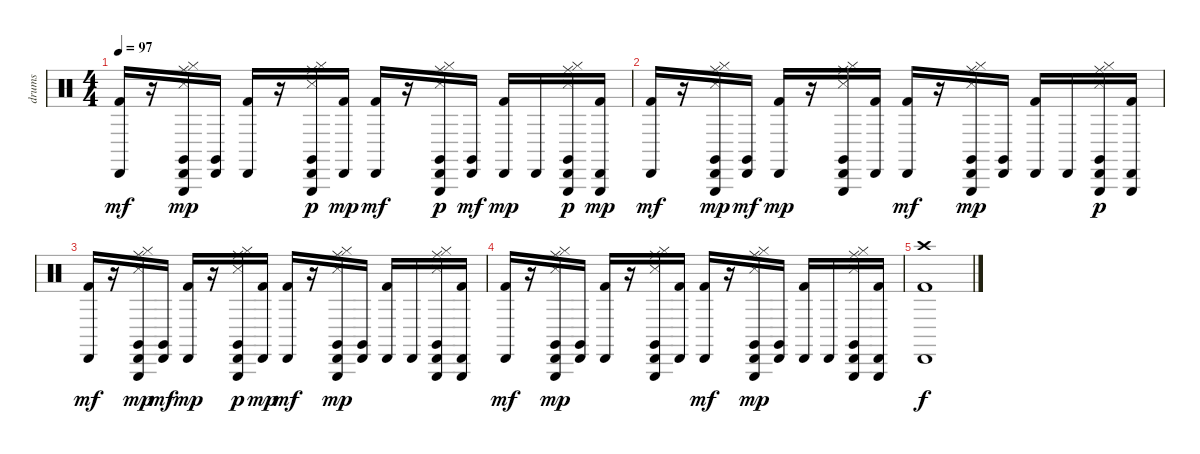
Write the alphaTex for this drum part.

\track ("drums" "drums") {instrument percussion}
\staff {score}
\articulation defaults
\ts (4 4)
\tempo 97
\clef neutral
\ks c
("Kick (hit) 2" "Cabasa (hit)").16{dy mf} r.16 ("Snare (side stick) 3" "Hi-Hat (closed)" "Cabasa (hit)" "Claves (hit)" "Ride (middle)" "Triangle (hit)").16{dy mp} ("Cabasa (hit)" "Claves (hit)").16 ("Kick (hit) 2" "Cabasa (hit)").16 r.16 ("Snare (side stick) 3" "Hi-Hat (closed)" "Cabasa (hit)" "Claves (hit)" "Ride (middle)" "Triangle (hit)").16{dy p} ("Kick (hit) 2" "Cabasa (hit)").16{dy mp} ("Kick (hit) 2" "Cabasa (hit)").16{dy mf} r.16 ("Snare (side stick) 3" "Hi-Hat (closed)" "Cabasa (hit)" "Claves (hit)" "Ride (middle)" "Triangle (hit)").16{dy p} ("Cabasa (hit)" "Claves (hit)").16{dy mf} ("Kick (hit) 2" "Cabasa (hit)").16{dy mp} "Cabasa (hit)".16 ("Snare (side stick) 3" "Hi-Hat (closed)" "Cabasa (hit)" "Claves (hit)" "Ride (middle)" "Triangle (hit)").16{dy p} ("Kick (hit) 2" "Cabasa (hit)" "Triangle (hit)").16{dy mp} |
("Kick (hit) 2" "Cabasa (hit)").16{dy mf} r.16 ("Snare (side stick) 3" "Hi-Hat (closed)" "Cabasa (hit)" "Claves (hit)" "Ride (middle)" "Triangle (hit)").16{dy mp} ("Cabasa (hit)" "Claves (hit)").16{dy mf} ("Kick (hit) 2" "Cabasa (hit)").16{dy mp} r.16 ("Snare (side stick) 3" "Hi-Hat (closed)" "Cabasa (hit)" "Claves (hit)" "Ride (middle)" "Triangle (hit)").16 ("Kick (hit) 2" "Cabasa (hit)").16 ("Kick (hit) 2" "Cabasa (hit)").16{dy mf} r.16 ("Snare (side stick) 3" "Hi-Hat (closed)" "Cabasa (hit)" "Claves (hit)" "Ride (middle)" "Triangle (hit)").16{dy mp} ("Cabasa (hit)" "Claves (hit)").16 ("Kick (hit) 2" "Cabasa (hit)").16 "Cabasa (hit)".16 ("Snare (side stick) 3" "Hi-Hat (closed)" "Cabasa (hit)" "Claves (hit)" "Ride (middle)" "Triangle (hit)").16{dy p} ("Kick (hit) 2" "Cabasa (hit)" "Triangle (hit)").16 |
("Kick (hit) 2" "Cabasa (hit)").16{dy mf} r.16 ("Snare (side stick) 3" "Hi-Hat (closed)" "Cabasa (hit)" "Claves (hit)" "Ride (middle)" "Triangle (hit)").16{dy mp} ("Cabasa (hit)" "Claves (hit)").16{dy mf} ("Kick (hit) 2" "Cabasa (hit)").16{dy mp} r.16 ("Snare (side stick) 3" "Hi-Hat (closed)" "Cabasa (hit)" "Claves (hit)" "Ride (middle)" "Triangle (hit)").16{dy p} ("Kick (hit) 2" "Cabasa (hit)").16{dy mp} ("Kick (hit) 2" "Cabasa (hit)").16{dy mf} r.16 ("Snare (side stick) 3" "Hi-Hat (closed)" "Cabasa (hit)" "Claves (hit)" "Ride (middle)" "Triangle (hit)").16{dy mp} ("Cabasa (hit)" "Claves (hit)").16 ("Kick (hit) 2" "Cabasa (hit)").16 "Cabasa (hit)".16 ("Snare (side stick) 3" "Hi-Hat (closed)" "Cabasa (hit)" "Claves (hit)" "Ride (middle)" "Triangle (hit)").16 ("Kick (hit) 2" "Cabasa (hit)" "Triangle (hit)").16 |
("Kick (hit) 2" "Cabasa (hit)").16{dy mf} r.16 ("Snare (side stick) 3" "Hi-Hat (closed)" "Cabasa (hit)" "Claves (hit)" "Ride (middle)" "Triangle (hit)").16{dy mp} ("Cabasa (hit)" "Claves (hit)").16 ("Kick (hit) 2" "Cabasa (hit)").16 r.16 ("Snare (side stick) 3" "Hi-Hat (closed)" "Cabasa (hit)" "Claves (hit)" "Ride (middle)" "Triangle (hit)").16 ("Kick (hit) 2" "Cabasa (hit)").16 ("Kick (hit) 2" "Cabasa (hit)").16{dy mf} r.16 ("Snare (side stick) 3" "Hi-Hat (closed)" "Cabasa (hit)" "Claves (hit)" "Ride (middle)" "Triangle (hit)").16{dy mp} ("Cabasa (hit)" "Claves (hit)").16 ("Kick (hit) 2" "Cabasa (hit)").16 "Cabasa (hit)".16 ("Snare (side stick) 3" "Hi-Hat (closed)" "Cabasa (hit)" "Claves (hit)" "Ride (middle)" "Triangle (hit)").16 ("Kick (hit) 2" "Cabasa (hit)" "Triangle (hit)").16 |
("Kick (hit) 2" "Cabasa (hit)" "Crash high (hit)").1{dy f}
